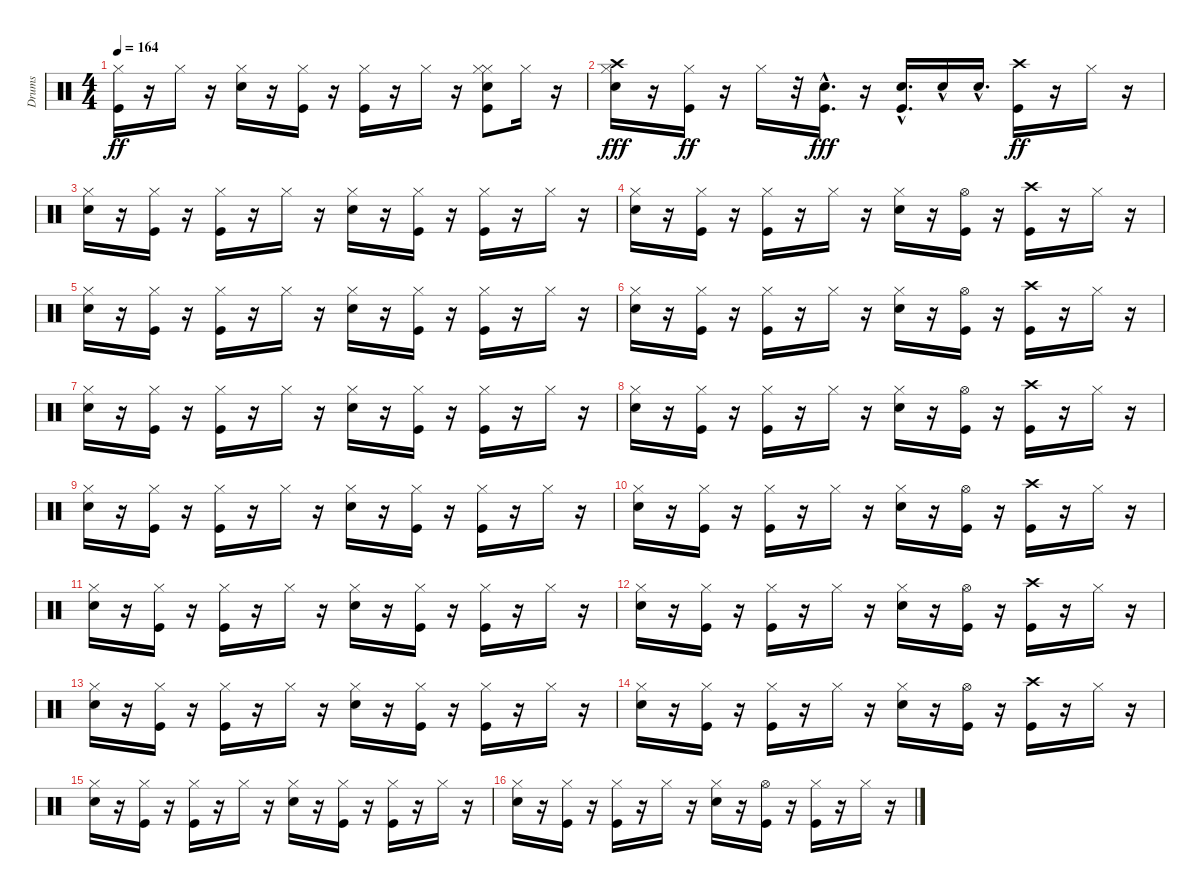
\track ("Drums" "Drums") {instrument percussion}
\staff {score}
\articulation defaults
\ts (4 4)
\tempo 164
\clef neutral
\ks c
("Kick (hit)" "Hi-Hat (closed)").16{dy ff} r.16 "Hi-Hat (closed)".16 r.16 ("Electric Snare (hit)" "Hi-Hat (closed)").16 r.16 ("Kick (hit)" "Hi-Hat (closed)").16 r.16 ("Kick (hit)" "Hi-Hat (closed)").16 r.16 "Hi-Hat (closed)".16 r.16 ("Electric Snare (hit)" "Hi-Hat (closed)" "Kick (hit)" "Hi-Hat (closed)").8 "Hi-Hat (closed)".16 r.16 |
("Hi-Hat (closed)" "Crash high (hit)" "Electric Snare (hit)").16{dy fff} r.16 ("Kick (hit)" "Hi-Hat (closed)").16{dy ff} r.16 "Hi-Hat (closed)".16 r.32 ("Electric Snare (hit)"{hac} "Kick (hit)"{hac}).16{d dy fff} r.16 ("Electric Snare (hit)"{hac} "Kick (hit)"{hac}).16{d} "Electric Snare (hit)"{hac}.16 "Electric Snare (hit)"{hac}.16{d} ("Kick (hit)" "Crash high (hit)").16{dy ff} r.16 "Hi-Hat (closed)".16 r.16 |
("Electric Snare (hit)" "Hi-Hat (closed)").16 r.16 ("Kick (hit)" "Hi-Hat (closed)").16 r.16 ("Kick (hit)" "Hi-Hat (closed)").16 r.16 "Hi-Hat (closed)".16 r.16 ("Electric Snare (hit)" "Hi-Hat (closed)").16 r.16 ("Kick (hit)" "Hi-Hat (closed)").16 r.16 ("Kick (hit)" "Hi-Hat (closed)").16 r.16 "Hi-Hat (closed)".16 r.16 |
("Electric Snare (hit)" "Hi-Hat (closed)").16 r.16 ("Kick (hit)" "Hi-Hat (closed)").16 r.16 ("Kick (hit)" "Hi-Hat (closed)").16 r.16 "Hi-Hat (closed)".16 r.16 ("Electric Snare (hit)" "Hi-Hat (closed)").16 r.16 ("Kick (hit)" "Hi-Hat (open)").16 r.16 ("Kick (hit)" "Crash high (hit)").16 r.16 "Hi-Hat (closed)".16 r.16 |
("Electric Snare (hit)" "Hi-Hat (closed)").16 r.16 ("Kick (hit)" "Hi-Hat (closed)").16 r.16 ("Kick (hit)" "Hi-Hat (closed)").16 r.16 "Hi-Hat (closed)".16 r.16 ("Electric Snare (hit)" "Hi-Hat (closed)").16 r.16 ("Kick (hit)" "Hi-Hat (closed)").16 r.16 ("Kick (hit)" "Hi-Hat (closed)").16 r.16 "Hi-Hat (closed)".16 r.16 |
("Electric Snare (hit)" "Hi-Hat (closed)").16 r.16 ("Kick (hit)" "Hi-Hat (closed)").16 r.16 ("Kick (hit)" "Hi-Hat (closed)").16 r.16 "Hi-Hat (closed)".16 r.16 ("Electric Snare (hit)" "Hi-Hat (closed)").16 r.16 ("Kick (hit)" "Hi-Hat (open)").16 r.16 ("Kick (hit)" "Crash high (hit)").16 r.16 "Hi-Hat (closed)".16 r.16 |
("Electric Snare (hit)" "Hi-Hat (closed)").16 r.16 ("Kick (hit)" "Hi-Hat (closed)").16 r.16 ("Kick (hit)" "Hi-Hat (closed)").16 r.16 "Hi-Hat (closed)".16 r.16 ("Electric Snare (hit)" "Hi-Hat (closed)").16 r.16 ("Kick (hit)" "Hi-Hat (closed)").16 r.16 ("Kick (hit)" "Hi-Hat (closed)").16 r.16 "Hi-Hat (closed)".16 r.16 |
("Electric Snare (hit)" "Hi-Hat (closed)").16 r.16 ("Kick (hit)" "Hi-Hat (closed)").16 r.16 ("Kick (hit)" "Hi-Hat (closed)").16 r.16 "Hi-Hat (closed)".16 r.16 ("Electric Snare (hit)" "Hi-Hat (closed)").16 r.16 ("Kick (hit)" "Hi-Hat (open)").16 r.16 ("Kick (hit)" "Crash high (hit)").16 r.16 "Hi-Hat (closed)".16 r.16 |
("Electric Snare (hit)" "Hi-Hat (closed)").16 r.16 ("Kick (hit)" "Hi-Hat (closed)").16 r.16 ("Kick (hit)" "Hi-Hat (closed)").16 r.16 "Hi-Hat (closed)".16 r.16 ("Electric Snare (hit)" "Hi-Hat (closed)").16 r.16 ("Kick (hit)" "Hi-Hat (closed)").16 r.16 ("Kick (hit)" "Hi-Hat (closed)").16 r.16 "Hi-Hat (closed)".16 r.16 |
("Electric Snare (hit)" "Hi-Hat (closed)").16 r.16 ("Kick (hit)" "Hi-Hat (closed)").16 r.16 ("Kick (hit)" "Hi-Hat (closed)").16 r.16 "Hi-Hat (closed)".16 r.16 ("Electric Snare (hit)" "Hi-Hat (closed)").16 r.16 ("Kick (hit)" "Hi-Hat (open)").16 r.16 ("Kick (hit)" "Crash high (hit)").16 r.16 "Hi-Hat (closed)".16 r.16 |
("Electric Snare (hit)" "Hi-Hat (closed)").16 r.16 ("Kick (hit)" "Hi-Hat (closed)").16 r.16 ("Kick (hit)" "Hi-Hat (closed)").16 r.16 "Hi-Hat (closed)".16 r.16 ("Electric Snare (hit)" "Hi-Hat (closed)").16 r.16 ("Kick (hit)" "Hi-Hat (closed)").16 r.16 ("Kick (hit)" "Hi-Hat (closed)").16 r.16 "Hi-Hat (closed)".16 r.16 |
("Electric Snare (hit)" "Hi-Hat (closed)").16 r.16 ("Kick (hit)" "Hi-Hat (closed)").16 r.16 ("Kick (hit)" "Hi-Hat (closed)").16 r.16 "Hi-Hat (closed)".16 r.16 ("Electric Snare (hit)" "Hi-Hat (closed)").16 r.16 ("Kick (hit)" "Hi-Hat (open)").16 r.16 ("Kick (hit)" "Crash high (hit)").16 r.16 "Hi-Hat (closed)".16 r.16 |
("Electric Snare (hit)" "Hi-Hat (closed)").16 r.16 ("Kick (hit)" "Hi-Hat (closed)").16 r.16 ("Kick (hit)" "Hi-Hat (closed)").16 r.16 "Hi-Hat (closed)".16 r.16 ("Electric Snare (hit)" "Hi-Hat (closed)").16 r.16 ("Kick (hit)" "Hi-Hat (closed)").16 r.16 ("Kick (hit)" "Hi-Hat (closed)").16 r.16 "Hi-Hat (closed)".16 r.16 |
("Electric Snare (hit)" "Hi-Hat (closed)").16 r.16 ("Kick (hit)" "Hi-Hat (closed)").16 r.16 ("Kick (hit)" "Hi-Hat (closed)").16 r.16 "Hi-Hat (closed)".16 r.16 ("Electric Snare (hit)" "Hi-Hat (closed)").16 r.16 ("Kick (hit)" "Hi-Hat (open)").16 r.16 ("Kick (hit)" "Crash high (hit)").16 r.16 "Hi-Hat (closed)".16 r.16 |
("Electric Snare (hit)" "Hi-Hat (closed)").16 r.16 ("Kick (hit)" "Hi-Hat (closed)").16 r.16 ("Kick (hit)" "Hi-Hat (closed)").16 r.16 "Hi-Hat (closed)".16 r.16 ("Electric Snare (hit)" "Hi-Hat (closed)").16 r.16 ("Kick (hit)" "Hi-Hat (closed)").16 r.16 ("Kick (hit)" "Hi-Hat (closed)").16 r.16 "Hi-Hat (closed)".16 r.16 |
("Electric Snare (hit)" "Hi-Hat (closed)").16 r.16 ("Kick (hit)" "Hi-Hat (closed)").16 r.16 ("Kick (hit)" "Hi-Hat (closed)").16 r.16 "Hi-Hat (closed)".16 r.16 ("Electric Snare (hit)" "Hi-Hat (closed)").16 r.16 ("Kick (hit)" "Hi-Hat (open)").16 r.16 ("Kick (hit)" "Hi-Hat (closed)").16 r.16 "Hi-Hat (closed)".16 r.16
